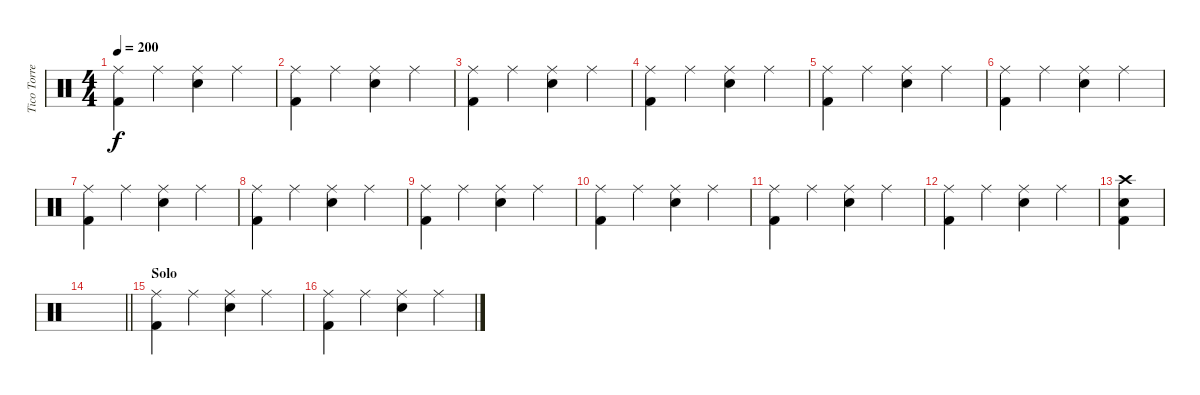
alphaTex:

\track ("Tico Torres" "Tico Torre") {instrument percussion}
\staff {score}
\articulation defaults
\ts (4 4)
\tempo 200
\clef neutral
\ks c
("Ride (middle)" "Kick (hit) 2").4{dy f} "Ride (middle)".4 ("Snare (hit) 2" "Ride (middle)").4 "Ride (middle)".4 |
("Ride (middle)" "Kick (hit) 2").4 "Ride (middle)".4 ("Snare (hit) 2" "Ride (middle)").4 "Ride (middle)".4 |
("Ride (middle)" "Kick (hit) 2").4 "Ride (middle)".4 ("Snare (hit) 2" "Ride (middle)").4 "Ride (middle)".4 |
("Ride (middle)" "Kick (hit) 2").4 "Ride (middle)".4 ("Snare (hit) 2" "Ride (middle)").4 "Ride (middle)".4 |
("Ride (middle)" "Kick (hit) 2").4 "Ride (middle)".4 ("Snare (hit) 2" "Ride (middle)").4 "Ride (middle)".4 |
("Ride (middle)" "Kick (hit) 2").4 "Ride (middle)".4 ("Snare (hit) 2" "Ride (middle)").4 "Ride (middle)".4 |
("Ride (middle)" "Kick (hit) 2").4 "Ride (middle)".4 ("Snare (hit) 2" "Ride (middle)").4 "Ride (middle)".4 |
("Ride (middle)" "Kick (hit) 2").4 "Ride (middle)".4 ("Snare (hit) 2" "Ride (middle)").4 "Ride (middle)".4 |
("Ride (middle)" "Kick (hit) 2").4 "Ride (middle)".4 ("Snare (hit) 2" "Ride (middle)").4 "Ride (middle)".4 |
("Ride (middle)" "Kick (hit) 2").4 "Ride (middle)".4 ("Snare (hit) 2" "Ride (middle)").4 "Ride (middle)".4 |
("Ride (middle)" "Kick (hit) 2").4 "Ride (middle)".4 ("Snare (hit) 2" "Ride (middle)").4 "Ride (middle)".4 |
("Ride (middle)" "Kick (hit) 2").4 "Ride (middle)".4 ("Snare (hit) 2" "Ride (middle)").4 "Ride (middle)".4 |
("Snare (hit) 2" "Crash high (hit)" "Kick (hit) 2").4 |
\barLineRight lightlight
|
\section ("" "Solo")
("Ride (middle)" "Kick (hit) 2").4 "Ride (middle)".4 ("Snare (hit) 2" "Ride (middle)").4 "Ride (middle)".4 |
("Ride (middle)" "Kick (hit) 2").4 "Ride (middle)".4 ("Snare (hit) 2" "Ride (middle)").4 "Ride (middle)".4
